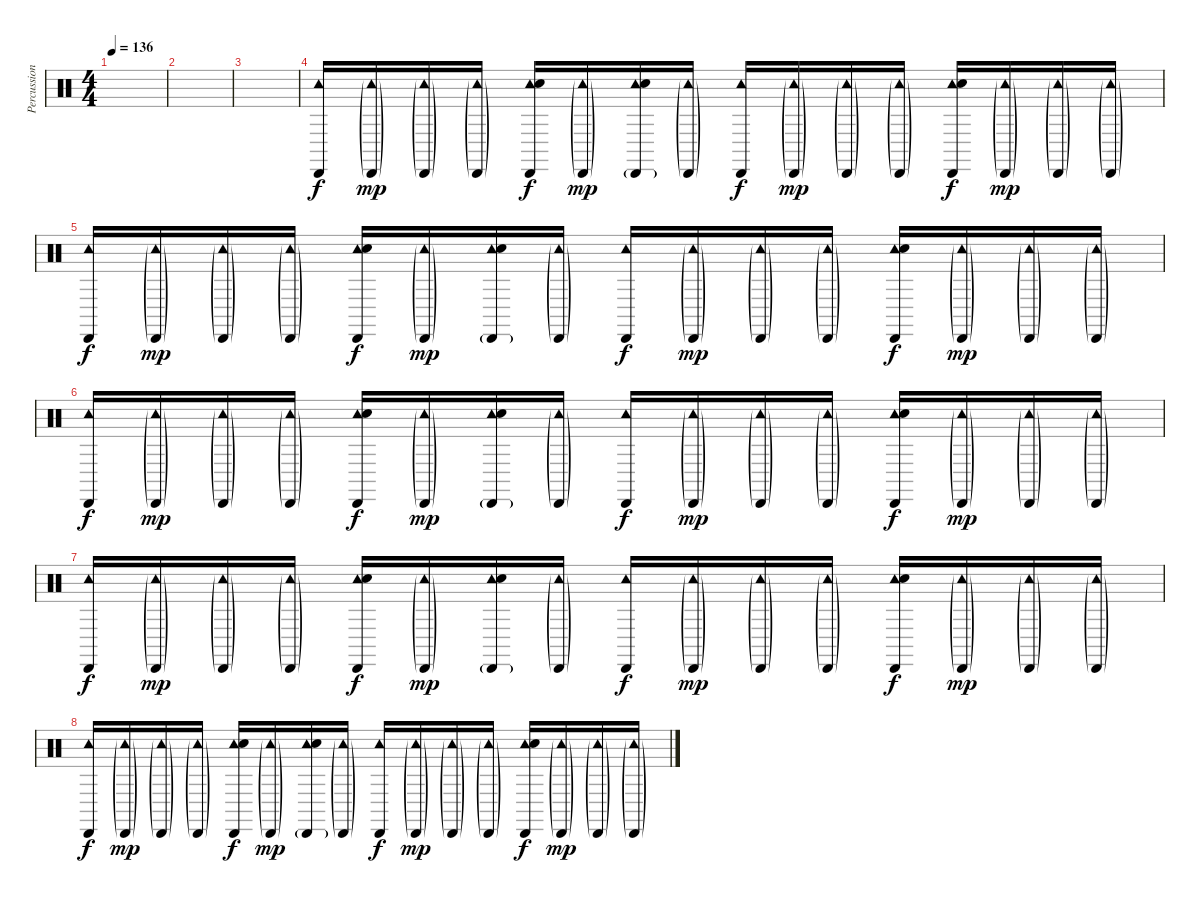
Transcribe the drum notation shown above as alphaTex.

\track ("Percussion (2)" "Percussion") {instrument percussion}
\staff {score}
\articulation defaults
\ts (4 4)
\tempo 136
\clef neutral
\ks c
|
|
|
("Cabasa (hit)" "Tambourine (hit)").16{dy f} ("Cabasa (hit)"{g} "Tambourine (hit)"{g}).16{dy mp} ("Cabasa (hit)"{g} "Tambourine (hit)"{g}).16 ("Cabasa (hit)"{g} "Tambourine (hit)"{g}).16 ("Cabasa (hit)" "Tambourine (hit)" "Hand Clap (hit)").16{dy f} ("Cabasa (hit)"{g} "Tambourine (hit)"{g}).16{dy mp} ("Cabasa (hit)"{g} "Tambourine (hit)" "Hand Clap (hit)").16 ("Cabasa (hit)"{g} "Tambourine (hit)"{g}).16 ("Cabasa (hit)" "Tambourine (hit)").16{dy f} ("Cabasa (hit)"{g} "Tambourine (hit)"{g}).16{dy mp} ("Cabasa (hit)"{g} "Tambourine (hit)"{g}).16 ("Cabasa (hit)"{g} "Tambourine (hit)"{g}).16 ("Cabasa (hit)" "Tambourine (hit)" "Hand Clap (hit)").16{dy f} ("Cabasa (hit)"{g} "Tambourine (hit)"{g}).16{dy mp} ("Cabasa (hit)"{g} "Tambourine (hit)"{g}).16 ("Cabasa (hit)"{g} "Tambourine (hit)"{g}).16 |
("Cabasa (hit)" "Tambourine (hit)").16{dy f} ("Cabasa (hit)"{g} "Tambourine (hit)"{g}).16{dy mp} ("Cabasa (hit)"{g} "Tambourine (hit)"{g}).16 ("Cabasa (hit)"{g} "Tambourine (hit)"{g}).16 ("Cabasa (hit)" "Tambourine (hit)" "Hand Clap (hit)").16{dy f} ("Cabasa (hit)"{g} "Tambourine (hit)"{g}).16{dy mp} ("Cabasa (hit)"{g} "Tambourine (hit)" "Hand Clap (hit)").16 ("Cabasa (hit)"{g} "Tambourine (hit)"{g}).16 ("Cabasa (hit)" "Tambourine (hit)").16{dy f} ("Cabasa (hit)"{g} "Tambourine (hit)"{g}).16{dy mp} ("Cabasa (hit)"{g} "Tambourine (hit)"{g}).16 ("Cabasa (hit)"{g} "Tambourine (hit)"{g}).16 ("Cabasa (hit)" "Tambourine (hit)" "Hand Clap (hit)").16{dy f} ("Cabasa (hit)"{g} "Tambourine (hit)"{g}).16{dy mp} ("Cabasa (hit)"{g} "Tambourine (hit)"{g}).16 ("Cabasa (hit)"{g} "Tambourine (hit)"{g}).16 |
("Cabasa (hit)" "Tambourine (hit)").16{dy f} ("Cabasa (hit)"{g} "Tambourine (hit)"{g}).16{dy mp} ("Cabasa (hit)"{g} "Tambourine (hit)"{g}).16 ("Cabasa (hit)"{g} "Tambourine (hit)"{g}).16 ("Cabasa (hit)" "Tambourine (hit)" "Hand Clap (hit)").16{dy f} ("Cabasa (hit)"{g} "Tambourine (hit)"{g}).16{dy mp} ("Cabasa (hit)"{g} "Tambourine (hit)" "Hand Clap (hit)").16 ("Cabasa (hit)"{g} "Tambourine (hit)"{g}).16 ("Cabasa (hit)" "Tambourine (hit)").16{dy f} ("Cabasa (hit)"{g} "Tambourine (hit)"{g}).16{dy mp} ("Cabasa (hit)"{g} "Tambourine (hit)"{g}).16 ("Cabasa (hit)"{g} "Tambourine (hit)"{g}).16 ("Cabasa (hit)" "Tambourine (hit)" "Hand Clap (hit)").16{dy f} ("Cabasa (hit)"{g} "Tambourine (hit)"{g}).16{dy mp} ("Cabasa (hit)"{g} "Tambourine (hit)"{g}).16 ("Cabasa (hit)"{g} "Tambourine (hit)"{g}).16 |
("Cabasa (hit)" "Tambourine (hit)").16{dy f} ("Cabasa (hit)"{g} "Tambourine (hit)"{g}).16{dy mp} ("Cabasa (hit)"{g} "Tambourine (hit)"{g}).16 ("Cabasa (hit)"{g} "Tambourine (hit)"{g}).16 ("Cabasa (hit)" "Tambourine (hit)" "Hand Clap (hit)").16{dy f} ("Cabasa (hit)"{g} "Tambourine (hit)"{g}).16{dy mp} ("Cabasa (hit)"{g} "Tambourine (hit)" "Hand Clap (hit)").16 ("Cabasa (hit)"{g} "Tambourine (hit)"{g}).16 ("Cabasa (hit)" "Tambourine (hit)").16{dy f} ("Cabasa (hit)"{g} "Tambourine (hit)"{g}).16{dy mp} ("Cabasa (hit)"{g} "Tambourine (hit)"{g}).16 ("Cabasa (hit)"{g} "Tambourine (hit)"{g}).16 ("Cabasa (hit)" "Tambourine (hit)" "Hand Clap (hit)").16{dy f} ("Cabasa (hit)"{g} "Tambourine (hit)"{g}).16{dy mp} ("Cabasa (hit)"{g} "Tambourine (hit)"{g}).16 ("Cabasa (hit)"{g} "Tambourine (hit)"{g}).16 |
("Cabasa (hit)" "Tambourine (hit)").16{dy f} ("Cabasa (hit)"{g} "Tambourine (hit)"{g}).16{dy mp} ("Cabasa (hit)"{g} "Tambourine (hit)"{g}).16 ("Cabasa (hit)"{g} "Tambourine (hit)"{g}).16 ("Cabasa (hit)" "Tambourine (hit)" "Hand Clap (hit)").16{dy f} ("Cabasa (hit)"{g} "Tambourine (hit)"{g}).16{dy mp} ("Cabasa (hit)"{g} "Tambourine (hit)" "Hand Clap (hit)").16 ("Cabasa (hit)"{g} "Tambourine (hit)"{g}).16 ("Cabasa (hit)" "Tambourine (hit)").16{dy f} ("Cabasa (hit)"{g} "Tambourine (hit)"{g}).16{dy mp} ("Cabasa (hit)"{g} "Tambourine (hit)"{g}).16 ("Cabasa (hit)"{g} "Tambourine (hit)"{g}).16 ("Cabasa (hit)" "Tambourine (hit)" "Hand Clap (hit)").16{dy f} ("Cabasa (hit)"{g} "Tambourine (hit)"{g}).16{dy mp} ("Cabasa (hit)"{g} "Tambourine (hit)"{g}).16 ("Cabasa (hit)"{g} "Tambourine (hit)"{g}).16
